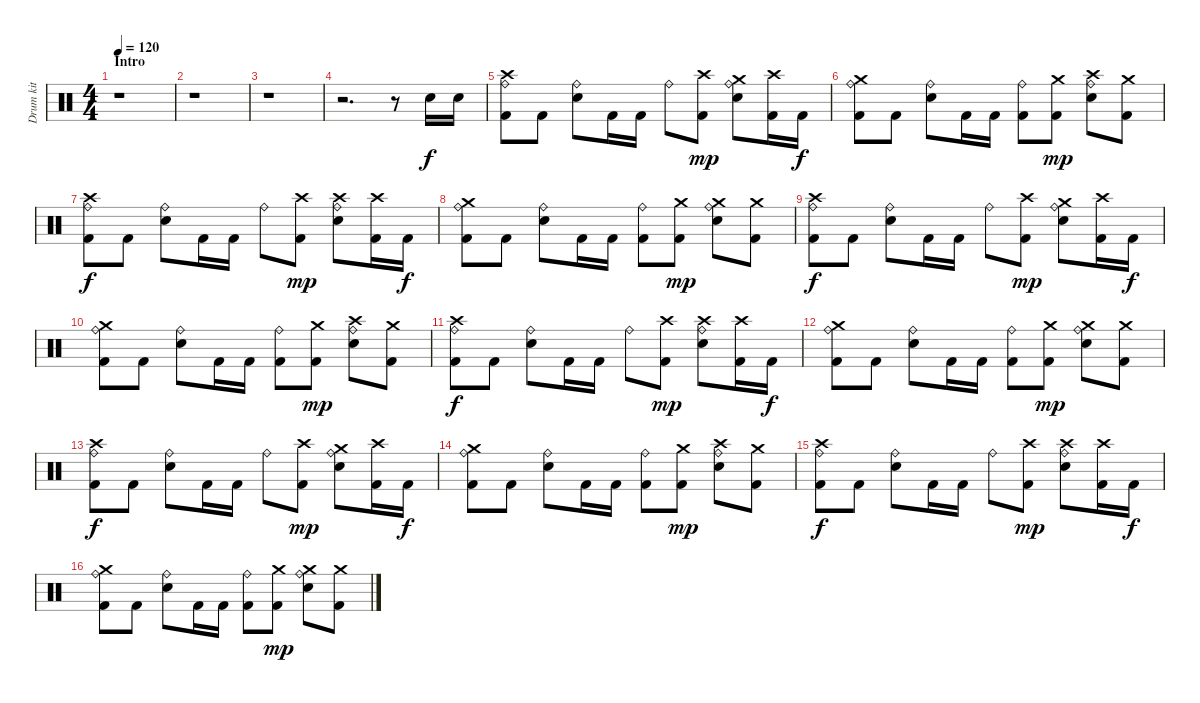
\track ("Drum kit" "Drum kit") {instrument percussion}
\staff {score}
\articulation defaults
\ts (4 4)
\section ("" "Intro")
\tempo 120
\clef neutral
\ks c
r.1{dy f} |
r.1 |
r.1 |
r.2{d} r.8 "Electric Snare (hit)".16 "Electric Snare (hit)".16 |
("Crash high (hit)" "Kick (hit) 2" "Ride (bell)").8 "Kick (hit) 2".8 ("Electric Snare (hit)" "Ride (bell)").8 "Kick (hit) 2".16 "Kick (hit) 2".16 "Ride (bell)".8 ("Crash high (hit)" "Kick (hit) 2").8{dy mp} ("Crash medium (hit)" "Electric Snare (hit)" "Ride (bell)").8 ("Crash high (hit)" "Kick (hit) 2").16 "Kick (hit) 2".16{dy f} |
("Crash medium (hit)" "Kick (hit) 2" "Ride (bell)").8 "Kick (hit) 2".8 ("Electric Snare (hit)" "Ride (bell)").8 "Kick (hit) 2".16 "Kick (hit) 2".16 ("Kick (hit) 2" "Ride (bell)").8 ("Crash medium (hit)" "Kick (hit) 2").8{dy mp} ("Crash high (hit)" "Electric Snare (hit)" "Ride (bell)").8 ("Crash medium (hit)" "Kick (hit) 2").8 |
("Crash high (hit)" "Kick (hit) 2" "Ride (bell)").8{dy f} "Kick (hit) 2".8 ("Electric Snare (hit)" "Ride (bell)").8 "Kick (hit) 2".16 "Kick (hit) 2".16 "Ride (bell)".8 ("Crash high (hit)" "Kick (hit) 2").8{dy mp} ("Crash high (hit)" "Electric Snare (hit)" "Ride (bell)").8 ("Crash high (hit)" "Kick (hit) 2").16 "Kick (hit) 2".16{dy f} |
("Crash medium (hit)" "Kick (hit) 2" "Ride (bell)").8 "Kick (hit) 2".8 ("Electric Snare (hit)" "Ride (bell)").8 "Kick (hit) 2".16 "Kick (hit) 2".16 ("Kick (hit) 2" "Ride (bell)").8 ("Crash medium (hit)" "Kick (hit) 2").8{dy mp} ("Crash medium (hit)" "Electric Snare (hit)" "Ride (bell)").8 ("Crash medium (hit)" "Kick (hit) 2").8 |
("Crash high (hit)" "Kick (hit) 2" "Ride (bell)").8{dy f} "Kick (hit) 2".8 ("Electric Snare (hit)" "Ride (bell)").8 "Kick (hit) 2".16 "Kick (hit) 2".16 "Ride (bell)".8 ("Crash high (hit)" "Kick (hit) 2").8{dy mp} ("Crash medium (hit)" "Electric Snare (hit)" "Ride (bell)").8 ("Crash high (hit)" "Kick (hit) 2").16 "Kick (hit) 2".16{dy f} |
("Crash medium (hit)" "Kick (hit) 2" "Ride (bell)").8 "Kick (hit) 2".8 ("Electric Snare (hit)" "Ride (bell)").8 "Kick (hit) 2".16 "Kick (hit) 2".16 ("Kick (hit) 2" "Ride (bell)").8 ("Crash medium (hit)" "Kick (hit) 2").8{dy mp} ("Crash high (hit)" "Electric Snare (hit)" "Ride (bell)").8 ("Crash medium (hit)" "Kick (hit) 2").8 |
("Crash high (hit)" "Kick (hit) 2" "Ride (bell)").8{dy f} "Kick (hit) 2".8 ("Electric Snare (hit)" "Ride (bell)").8 "Kick (hit) 2".16 "Kick (hit) 2".16 "Ride (bell)".8 ("Crash high (hit)" "Kick (hit) 2").8{dy mp} ("Crash high (hit)" "Electric Snare (hit)" "Ride (bell)").8 ("Crash high (hit)" "Kick (hit) 2").16 "Kick (hit) 2".16{dy f} |
("Crash medium (hit)" "Kick (hit) 2" "Ride (bell)").8 "Kick (hit) 2".8 ("Electric Snare (hit)" "Ride (bell)").8 "Kick (hit) 2".16 "Kick (hit) 2".16 ("Kick (hit) 2" "Ride (bell)").8 ("Crash medium (hit)" "Kick (hit) 2").8{dy mp} ("Crash medium (hit)" "Electric Snare (hit)" "Ride (bell)").8 ("Crash medium (hit)" "Kick (hit) 2").8 |
("Crash high (hit)" "Kick (hit) 2" "Ride (bell)").8{dy f} "Kick (hit) 2".8 ("Electric Snare (hit)" "Ride (bell)").8 "Kick (hit) 2".16 "Kick (hit) 2".16 "Ride (bell)".8 ("Crash high (hit)" "Kick (hit) 2").8{dy mp} ("Crash medium (hit)" "Electric Snare (hit)" "Ride (bell)").8 ("Crash high (hit)" "Kick (hit) 2").16 "Kick (hit) 2".16{dy f} |
("Crash medium (hit)" "Kick (hit) 2" "Ride (bell)").8 "Kick (hit) 2".8 ("Electric Snare (hit)" "Ride (bell)").8 "Kick (hit) 2".16 "Kick (hit) 2".16 ("Kick (hit) 2" "Ride (bell)").8 ("Crash medium (hit)" "Kick (hit) 2").8{dy mp} ("Crash high (hit)" "Electric Snare (hit)" "Ride (bell)").8 ("Crash medium (hit)" "Kick (hit) 2").8 |
("Crash high (hit)" "Kick (hit) 2" "Ride (bell)").8{dy f} "Kick (hit) 2".8 ("Electric Snare (hit)" "Ride (bell)").8 "Kick (hit) 2".16 "Kick (hit) 2".16 "Ride (bell)".8 ("Crash high (hit)" "Kick (hit) 2").8{dy mp} ("Crash high (hit)" "Electric Snare (hit)" "Ride (bell)").8 ("Crash high (hit)" "Kick (hit) 2").16 "Kick (hit) 2".16{dy f} |
("Crash medium (hit)" "Kick (hit) 2" "Ride (bell)").8 "Kick (hit) 2".8 ("Electric Snare (hit)" "Ride (bell)").8 "Kick (hit) 2".16 "Kick (hit) 2".16 ("Kick (hit) 2" "Ride (bell)").8 ("Crash medium (hit)" "Kick (hit) 2").8{dy mp} ("Crash medium (hit)" "Electric Snare (hit)" "Ride (bell)").8 ("Crash medium (hit)" "Kick (hit) 2").8
